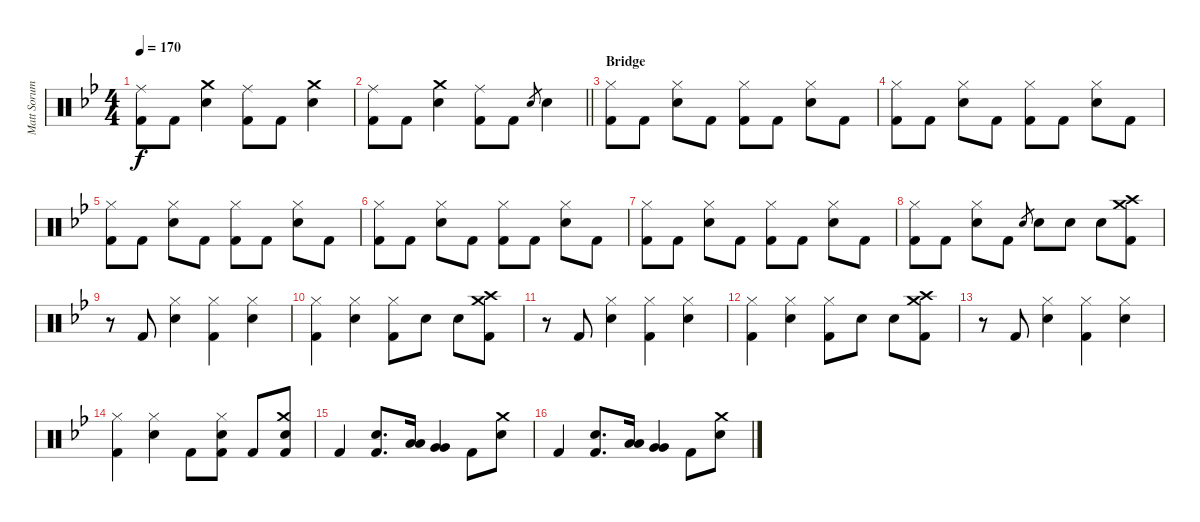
\track ("Matt Sorum - Drums" "Matt Sorum") {instrument percussion}
\staff {score}
\articulation defaults
\ts (4 4)
\tempo 170
\clef neutral
\ks bb
("Ride (middle)" "Kick (hit) 2").8{dy f} "Kick (hit) 2".8 ("Crash medium (hit)" "Snare (hit) 2").4 ("Ride (middle)" "Kick (hit) 2").8 "Kick (hit) 2".8 ("Crash medium (hit)" "Snare (hit) 2").4 |
\barLineRight lightlight
("Ride (middle)" "Kick (hit) 2").8 "Kick (hit) 2".8 ("Crash medium (hit)" "Snare (hit) 2").4 ("Ride (middle)" "Kick (hit) 2").8 "Kick (hit) 2".8 "Snare (hit) 2".8{gr} "Snare (hit) 2".4 |
\section ("" "Bridge")
("Hi-Hat (closed)" "Kick (hit) 2").8 "Kick (hit) 2".8 ("Hi-Hat (closed)" "Snare (hit) 2").8 "Kick (hit) 2".8 ("Hi-Hat (closed)" "Kick (hit) 2").8 "Kick (hit) 2".8 ("Hi-Hat (closed)" "Snare (hit) 2").8 "Kick (hit) 2".8 |
("Hi-Hat (closed)" "Kick (hit) 2").8 "Kick (hit) 2".8 ("Hi-Hat (closed)" "Snare (hit) 2").8 "Kick (hit) 2".8 ("Hi-Hat (closed)" "Kick (hit) 2").8 "Kick (hit) 2".8 ("Hi-Hat (closed)" "Snare (hit) 2").8 "Kick (hit) 2".8 |
("Hi-Hat (closed)" "Kick (hit) 2").8 "Kick (hit) 2".8 ("Hi-Hat (closed)" "Snare (hit) 2").8 "Kick (hit) 2".8 ("Hi-Hat (closed)" "Kick (hit) 2").8 "Kick (hit) 2".8 ("Hi-Hat (closed)" "Snare (hit) 2").8 "Kick (hit) 2".8 |
("Hi-Hat (closed)" "Kick (hit) 2").8 "Kick (hit) 2".8 ("Hi-Hat (closed)" "Snare (hit) 2").8 "Kick (hit) 2".8 ("Hi-Hat (closed)" "Kick (hit) 2").8 "Kick (hit) 2".8 ("Hi-Hat (closed)" "Snare (hit) 2").8 "Kick (hit) 2".8 |
("Hi-Hat (closed)" "Kick (hit) 2").8 "Kick (hit) 2".8 ("Hi-Hat (closed)" "Snare (hit) 2").8 "Kick (hit) 2".8 ("Hi-Hat (closed)" "Kick (hit) 2").8 "Kick (hit) 2".8 ("Hi-Hat (closed)" "Snare (hit) 2").8 "Kick (hit) 2".8 |
("Hi-Hat (closed)" "Kick (hit) 2").8 "Kick (hit) 2".8 ("Hi-Hat (closed)" "Snare (hit) 2").8 "Kick (hit) 2".8 "Snare (hit) 2".8{gr} "Snare (hit) 2".8 "Snare (hit) 2".8 "Snare (hit) 2".8 ("Crash medium (hit)" "Crash high (hit)" "Kick (hit) 2").8 |
r.8 "Kick (hit) 2".8 ("Hi-Hat (closed)" "Snare (hit) 2").4 ("Hi-Hat (closed)" "Kick (hit) 2").4 ("Hi-Hat (closed)" "Snare (hit) 2").4 |
("Hi-Hat (closed)" "Kick (hit) 2").4 ("Hi-Hat (closed)" "Snare (hit) 2").4 ("Hi-Hat (closed)" "Kick (hit) 2").8 "Snare (hit) 2".8 "Snare (hit) 2".8 ("Crash medium (hit)" "Crash high (hit)" "Kick (hit) 2").8 |
r.8 "Kick (hit) 2".8 ("Hi-Hat (closed)" "Snare (hit) 2").4 ("Hi-Hat (closed)" "Kick (hit) 2").4 ("Hi-Hat (closed)" "Snare (hit) 2").4 |
("Hi-Hat (closed)" "Kick (hit) 2").4 ("Hi-Hat (closed)" "Snare (hit) 2").4 ("Hi-Hat (closed)" "Kick (hit) 2").8 "Snare (hit) 2".8 "Snare (hit) 2".8 ("Crash medium (hit)" "Crash high (hit)" "Kick (hit) 2").8 |
r.8 "Kick (hit) 2".8 ("Hi-Hat (closed)" "Snare (hit) 2").4 ("Hi-Hat (closed)" "Kick (hit) 2").4 ("Hi-Hat (closed)" "Snare (hit) 2").4 |
("Hi-Hat (closed)" "Kick (hit) 2").4 ("Hi-Hat (closed)" "Snare (hit) 2").4 "Kick (hit) 2".8 ("Hi-Hat (closed)" "Snare (hit) 2" "Kick (hit) 2").8 "Kick (hit) 2".8 ("Crash medium (hit)" "Snare (hit) 2" "Kick (hit) 2").8 |
"Kick (hit) 2".4 ("Snare (hit) 2" "Kick (hit) 2").8{d} ("Low Tom (hit)" "Low Tom (hit)").16 ("Very Low Tom (hit)" "Very Low Tom (hit)").4 "Kick (hit) 2".8 ("Crash medium (hit)" "Snare (hit) 2").8 |
"Kick (hit) 2".4 ("Snare (hit) 2" "Kick (hit) 2").8{d} ("Low Tom (hit)" "Low Tom (hit)").16 ("Very Low Tom (hit)" "Very Low Tom (hit)").4 "Kick (hit) 2".8 ("Crash medium (hit)" "Snare (hit) 2").8
